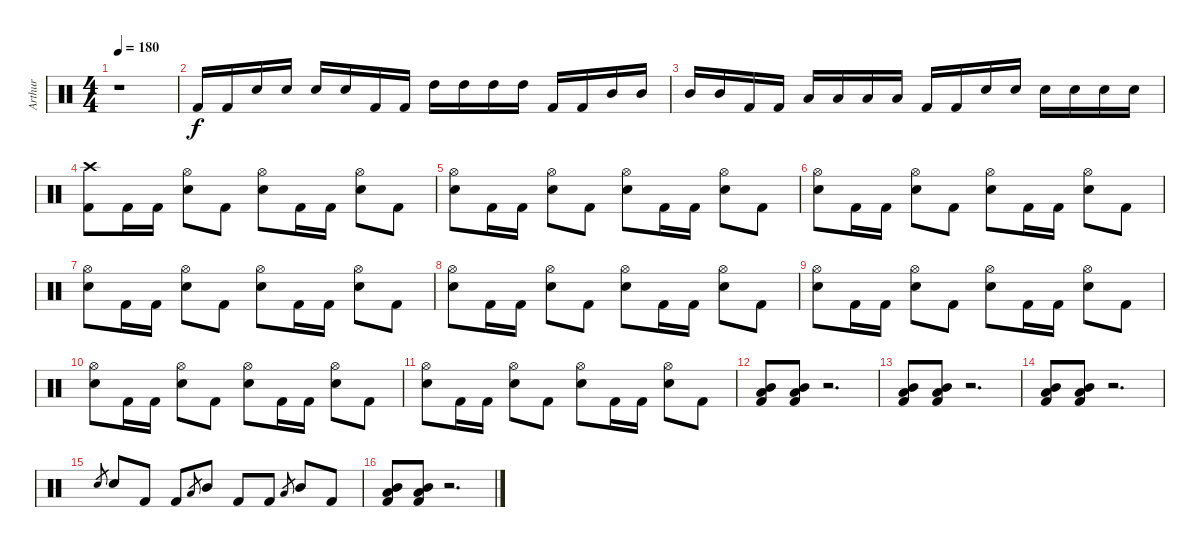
\track ("Arthur" "Arthur") {instrument percussion}
\staff {score}
\articulation defaults
\ts (4 4)
\tempo 180
\clef neutral
\ks c
r.1{dy f} |
"Kick (hit) 2".16 "Kick (hit) 2".16 "Electric Snare (hit)".16 "Electric Snare (hit)".16 "Electric Snare (hit)".16 "Electric Snare (hit)".16 "Kick (hit) 2".16 "Kick (hit) 2".16 "High Tom (hit)".16 "High Tom (hit)".16 "High Tom (hit)".16 "High Tom (hit)".16 "Kick (hit) 2".16 "Kick (hit) 2".16 "Mid Tom (hit)".16 "Mid Tom (hit)".16 |
"Mid Tom (hit)".16 "Mid Tom (hit)".16 "Kick (hit) 2".16 "Kick (hit) 2".16 "Low Tom (hit)".16 "Low Tom (hit)".16 "Low Tom (hit)".16 "Low Tom (hit)".16 "Kick (hit) 2".16 "Kick (hit) 2".16 "Electric Snare (hit)".16 "Electric Snare (hit)".16 "Electric Snare (hit)".16 "Electric Snare (hit)".16 "Electric Snare (hit)".16 "Electric Snare (hit)".16 |
("Crash high (hit)" "Kick (hit) 2").8 "Kick (hit) 2".16 "Kick (hit) 2".16 ("Hi-Hat (open)" "Electric Snare (hit)").8 "Kick (hit) 2".8 ("Hi-Hat (open)" "Electric Snare (hit)").8 "Kick (hit) 2".16 "Kick (hit) 2".16 ("Hi-Hat (open)" "Electric Snare (hit)").8 "Kick (hit) 2".8 |
("Hi-Hat (open)" "Electric Snare (hit)").8 "Kick (hit) 2".16 "Kick (hit) 2".16 ("Hi-Hat (open)" "Electric Snare (hit)").8 "Kick (hit) 2".8 ("Hi-Hat (open)" "Electric Snare (hit)").8 "Kick (hit) 2".16 "Kick (hit) 2".16 ("Hi-Hat (open)" "Electric Snare (hit)").8 "Kick (hit) 2".8 |
("Hi-Hat (open)" "Electric Snare (hit)").8 "Kick (hit) 2".16 "Kick (hit) 2".16 ("Hi-Hat (open)" "Electric Snare (hit)").8 "Kick (hit) 2".8 ("Hi-Hat (open)" "Electric Snare (hit)").8 "Kick (hit) 2".16 "Kick (hit) 2".16 ("Hi-Hat (open)" "Electric Snare (hit)").8 "Kick (hit) 2".8 |
("Hi-Hat (open)" "Electric Snare (hit)").8 "Kick (hit) 2".16 "Kick (hit) 2".16 ("Hi-Hat (open)" "Electric Snare (hit)").8 "Kick (hit) 2".8 ("Hi-Hat (open)" "Electric Snare (hit)").8 "Kick (hit) 2".16 "Kick (hit) 2".16 ("Hi-Hat (open)" "Electric Snare (hit)").8 "Kick (hit) 2".8 |
("Hi-Hat (open)" "Electric Snare (hit)").8 "Kick (hit) 2".16 "Kick (hit) 2".16 ("Hi-Hat (open)" "Electric Snare (hit)").8 "Kick (hit) 2".8 ("Hi-Hat (open)" "Electric Snare (hit)").8 "Kick (hit) 2".16 "Kick (hit) 2".16 ("Hi-Hat (open)" "Electric Snare (hit)").8 "Kick (hit) 2".8 |
("Hi-Hat (open)" "Electric Snare (hit)").8 "Kick (hit) 2".16 "Kick (hit) 2".16 ("Hi-Hat (open)" "Electric Snare (hit)").8 "Kick (hit) 2".8 ("Hi-Hat (open)" "Electric Snare (hit)").8 "Kick (hit) 2".16 "Kick (hit) 2".16 ("Hi-Hat (open)" "Electric Snare (hit)").8 "Kick (hit) 2".8 |
("Hi-Hat (open)" "Electric Snare (hit)").8 "Kick (hit) 2".16 "Kick (hit) 2".16 ("Hi-Hat (open)" "Electric Snare (hit)").8 "Kick (hit) 2".8 ("Hi-Hat (open)" "Electric Snare (hit)").8 "Kick (hit) 2".16 "Kick (hit) 2".16 ("Hi-Hat (open)" "Electric Snare (hit)").8 "Kick (hit) 2".8 |
("Hi-Hat (open)" "Electric Snare (hit)").8 "Kick (hit) 2".16 "Kick (hit) 2".16 ("Hi-Hat (open)" "Electric Snare (hit)").8 "Kick (hit) 2".8 ("Hi-Hat (open)" "Electric Snare (hit)").8 "Kick (hit) 2".16 "Kick (hit) 2".16 ("Hi-Hat (open)" "Electric Snare (hit)").8 "Kick (hit) 2".8 |
("Mid Tom (hit)" "Low Tom (hit)" "Kick (hit) 2").8 ("Mid Tom (hit)" "Low Tom (hit)" "Kick (hit) 2").8 r.2{d} |
("Mid Tom (hit)" "Low Tom (hit)" "Kick (hit) 2").8 ("Mid Tom (hit)" "Low Tom (hit)" "Kick (hit) 2").8 r.2{d} |
("Mid Tom (hit)" "Low Tom (hit)" "Kick (hit) 2").8 ("Mid Tom (hit)" "Low Tom (hit)" "Kick (hit) 2").8 r.2{d} |
"Electric Snare (hit)".8{gr} "Electric Snare (hit)".8 "Kick (hit) 2".8 "Kick (hit) 2".8 "Low Tom (hit)".8{gr} "Mid Tom (hit)".8 "Kick (hit) 2".8 "Kick (hit) 2".8 "Low Tom (hit)".8{gr} "Mid Tom (hit)".8 "Kick (hit) 2".8 |
("Mid Tom (hit)" "Low Tom (hit)" "Kick (hit) 2").8 ("Mid Tom (hit)" "Low Tom (hit)" "Kick (hit) 2").8 r.2{d}
